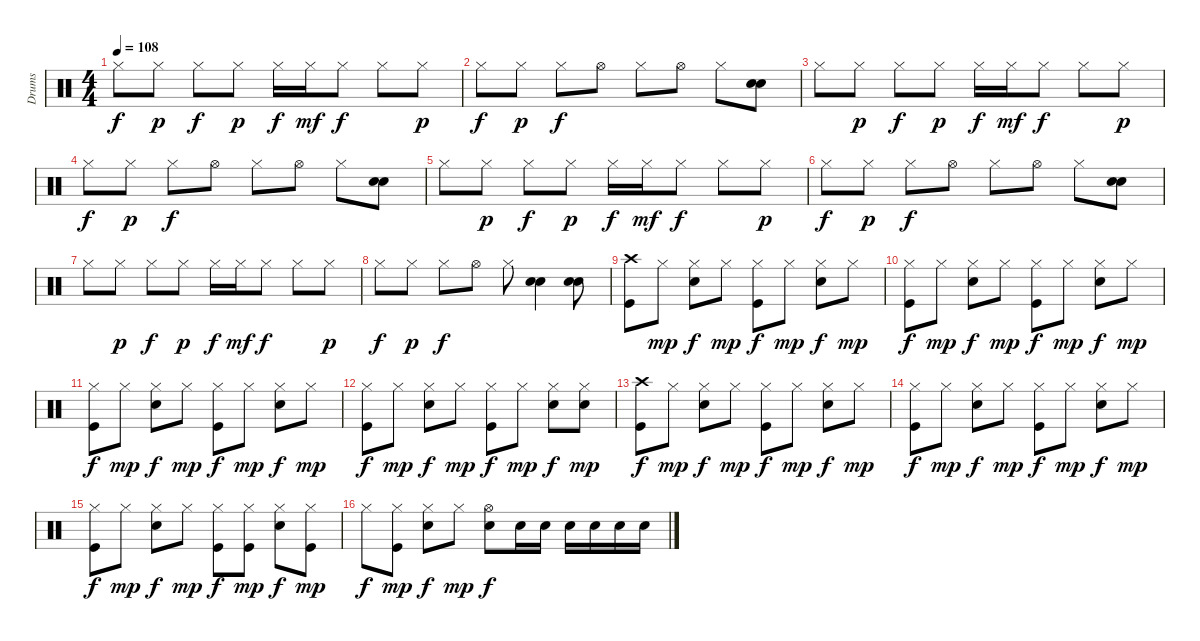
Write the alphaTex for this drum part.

\track ("Drums" "Drums") {instrument percussion}
\staff {score}
\articulation defaults
\ts (4 4)
\tempo 108
\clef neutral
\ks c "Hi-Hat (closed)".8{dy f} "Hi-Hat (closed)".8{dy p} "Hi-Hat (closed)".8{dy f} "Hi-Hat (closed)".8{dy p} "Hi-Hat (closed)".16{dy f} "Hi-Hat (closed)".16{dy mf} "Hi-Hat (closed)".8{dy f} "Hi-Hat (closed)".8 "Hi-Hat (closed)".8{dy p}
|
"Hi-Hat (closed)".8{dy f} "Hi-Hat (closed)".8{dy p} "Hi-Hat (closed)".8{dy f} "Hi-Hat (open)".8 "Hi-Hat (closed)".8 "Hi-Hat (open)".8 "Hi-Hat (closed)".8 ("Snare (hit) 2" "Electric Snare (hit)").8 |
"Hi-Hat (closed)".8 "Hi-Hat (closed)".8{dy p} "Hi-Hat (closed)".8{dy f} "Hi-Hat (closed)".8{dy p} "Hi-Hat (closed)".16{dy f} "Hi-Hat (closed)".16{dy mf} "Hi-Hat (closed)".8{dy f} "Hi-Hat (closed)".8 "Hi-Hat (closed)".8{dy p} |
"Hi-Hat (closed)".8{dy f} "Hi-Hat (closed)".8{dy p} "Hi-Hat (closed)".8{dy f} "Hi-Hat (open)".8 "Hi-Hat (closed)".8 "Hi-Hat (open)".8 "Hi-Hat (closed)".8 ("Snare (hit) 2" "Electric Snare (hit)").8 |
"Hi-Hat (closed)".8 "Hi-Hat (closed)".8{dy p} "Hi-Hat (closed)".8{dy f} "Hi-Hat (closed)".8{dy p} "Hi-Hat (closed)".16{dy f} "Hi-Hat (closed)".16{dy mf} "Hi-Hat (closed)".8{dy f} "Hi-Hat (closed)".8 "Hi-Hat (closed)".8{dy p} |
"Hi-Hat (closed)".8{dy f} "Hi-Hat (closed)".8{dy p} "Hi-Hat (closed)".8{dy f} "Hi-Hat (open)".8 "Hi-Hat (closed)".8 "Hi-Hat (open)".8 "Hi-Hat (closed)".8 ("Snare (hit) 2" "Electric Snare (hit)").8 |
"Hi-Hat (closed)".8 "Hi-Hat (closed)".8{dy p} "Hi-Hat (closed)".8{dy f} "Hi-Hat (closed)".8{dy p} "Hi-Hat (closed)".16{dy f} "Hi-Hat (closed)".16{dy mf} "Hi-Hat (closed)".8{dy f} "Hi-Hat (closed)".8 "Hi-Hat (closed)".8{dy p} |
"Hi-Hat (closed)".8{dy f} "Hi-Hat (closed)".8{dy p} "Hi-Hat (closed)".8{dy f} "Hi-Hat (open)".8 "Hi-Hat (closed)".8 ("Snare (hit) 2" "Electric Snare (hit)").4 ("Snare (hit) 2" "Electric Snare (hit)").8 |
("Crash high (hit)" "Kick (hit)").8 "Hi-Hat (closed)".8{dy mp} ("Hi-Hat (closed)" "Snare (hit) 2").8{dy f} "Hi-Hat (closed)".8{dy mp} ("Hi-Hat (closed)" "Kick (hit)").8{dy f} "Hi-Hat (closed)".8{dy mp} ("Hi-Hat (closed)" "Snare (hit) 2").8{dy f} "Hi-Hat (closed)".8{dy mp} |
("Hi-Hat (closed)" "Kick (hit)").8{dy f} "Hi-Hat (closed)".8{dy mp} ("Hi-Hat (closed)" "Snare (hit) 2").8{dy f} "Hi-Hat (closed)".8{dy mp} ("Hi-Hat (closed)" "Kick (hit)").8{dy f} "Hi-Hat (closed)".8{dy mp} ("Hi-Hat (closed)" "Snare (hit) 2").8{dy f} "Hi-Hat (closed)".8{dy mp} |
("Hi-Hat (closed)" "Kick (hit)").8{dy f} "Hi-Hat (closed)".8{dy mp} ("Hi-Hat (closed)" "Snare (hit) 2").8{dy f} "Hi-Hat (closed)".8{dy mp} ("Hi-Hat (closed)" "Kick (hit)").8{dy f} "Hi-Hat (closed)".8{dy mp} ("Hi-Hat (closed)" "Snare (hit) 2").8{dy f} "Hi-Hat (closed)".8{dy mp} |
("Hi-Hat (closed)" "Kick (hit)").8{dy f} "Hi-Hat (closed)".8{dy mp} ("Hi-Hat (closed)" "Snare (hit) 2").8{dy f} "Hi-Hat (closed)".8{dy mp} ("Hi-Hat (closed)" "Kick (hit)").8{dy f} "Hi-Hat (closed)".8{dy mp} ("Hi-Hat (closed)" "Snare (hit) 2").8{dy f} ("Hi-Hat (closed)" "Snare (hit) 2").8{dy mp} |
("Crash high (hit)" "Kick (hit)").8{dy f} "Hi-Hat (closed)".8{dy mp} ("Hi-Hat (closed)" "Snare (hit) 2").8{dy f} "Hi-Hat (closed)".8{dy mp} ("Hi-Hat (closed)" "Kick (hit)").8{dy f} "Hi-Hat (closed)".8{dy mp} ("Hi-Hat (closed)" "Snare (hit) 2").8{dy f} "Hi-Hat (closed)".8{dy mp} |
("Hi-Hat (closed)" "Kick (hit)").8{dy f} "Hi-Hat (closed)".8{dy mp} ("Hi-Hat (closed)" "Snare (hit) 2").8{dy f} "Hi-Hat (closed)".8{dy mp} ("Hi-Hat (closed)" "Kick (hit)").8{dy f} "Hi-Hat (closed)".8{dy mp} ("Hi-Hat (closed)" "Snare (hit) 2").8{dy f} "Hi-Hat (closed)".8{dy mp} |
("Hi-Hat (closed)" "Kick (hit)").8{dy f} "Hi-Hat (closed)".8{dy mp} ("Hi-Hat (closed)" "Snare (hit) 2").8{dy f} "Hi-Hat (closed)".8{dy mp} ("Hi-Hat (closed)" "Kick (hit)").8{dy f} ("Hi-Hat (closed)" "Kick (hit)").8{dy mp} ("Hi-Hat (closed)" "Snare (hit) 2").8{dy f} ("Hi-Hat (closed)" "Kick (hit)").8{dy mp} |
"Hi-Hat (closed)".8{dy f} ("Hi-Hat (closed)" "Kick (hit)").8{dy mp} ("Hi-Hat (closed)" "Snare (hit) 2").8{dy f} "Hi-Hat (closed)".8{dy mp} ("Hi-Hat (open)" "Snare (hit) 2").8{dy f} "Snare (hit) 2".16 "Snare (hit) 2".16 "Snare (hit) 2".16 "Snare (hit) 2".16 "Snare (hit) 2".16 "Snare (hit) 2".16
